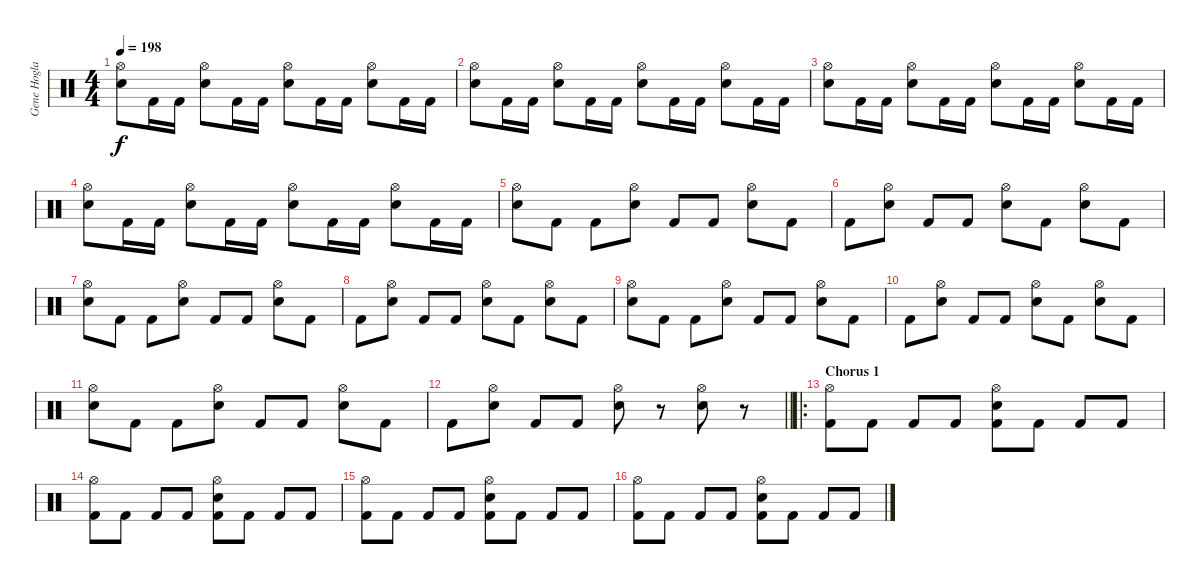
\track ("Gene Hoglan" "Gene Hogla") {instrument percussion}
\staff {score}
\articulation defaults
\ts (4 4)
\tempo 198
\clef neutral
\ks c
("Hi-Hat (open)" "Snare (hit) 2").8{dy f} "Kick (hit) 2".16 "Kick (hit) 2".16 ("Hi-Hat (open)" "Snare (hit) 2").8 "Kick (hit) 2".16 "Kick (hit) 2".16 ("Hi-Hat (open)" "Snare (hit) 2").8 "Kick (hit) 2".16 "Kick (hit) 2".16 ("Hi-Hat (open)" "Snare (hit) 2").8 "Kick (hit) 2".16 "Kick (hit) 2".16 |
("Hi-Hat (open)" "Snare (hit) 2").8 "Kick (hit) 2".16 "Kick (hit) 2".16 ("Hi-Hat (open)" "Snare (hit) 2").8 "Kick (hit) 2".16 "Kick (hit) 2".16 ("Hi-Hat (open)" "Snare (hit) 2").8 "Kick (hit) 2".16 "Kick (hit) 2".16 ("Hi-Hat (open)" "Snare (hit) 2").8 "Kick (hit) 2".16 "Kick (hit) 2".16 |
("Hi-Hat (open)" "Snare (hit) 2").8 "Kick (hit) 2".16 "Kick (hit) 2".16 ("Hi-Hat (open)" "Snare (hit) 2").8 "Kick (hit) 2".16 "Kick (hit) 2".16 ("Hi-Hat (open)" "Snare (hit) 2").8 "Kick (hit) 2".16 "Kick (hit) 2".16 ("Hi-Hat (open)" "Snare (hit) 2").8 "Kick (hit) 2".16 "Kick (hit) 2".16 |
("Hi-Hat (open)" "Snare (hit) 2").8 "Kick (hit) 2".16 "Kick (hit) 2".16 ("Hi-Hat (open)" "Snare (hit) 2").8 "Kick (hit) 2".16 "Kick (hit) 2".16 ("Hi-Hat (open)" "Snare (hit) 2").8 "Kick (hit) 2".16 "Kick (hit) 2".16 ("Hi-Hat (open)" "Snare (hit) 2").8 "Kick (hit) 2".16 "Kick (hit) 2".16 |
("Hi-Hat (open)" "Snare (hit) 2").8 "Kick (hit) 2".8 "Kick (hit) 2".8 ("Hi-Hat (open)" "Snare (hit) 2").8 "Kick (hit) 2".8 "Kick (hit) 2".8 ("Hi-Hat (open)" "Snare (hit) 2").8 "Kick (hit) 2".8 |
"Kick (hit) 2".8 ("Hi-Hat (open)" "Snare (hit) 2").8 "Kick (hit) 2".8 "Kick (hit) 2".8 ("Hi-Hat (open)" "Snare (hit) 2").8 "Kick (hit) 2".8 ("Hi-Hat (open)" "Snare (hit) 2").8 "Kick (hit) 2".8 |
("Hi-Hat (open)" "Snare (hit) 2").8 "Kick (hit) 2".8 "Kick (hit) 2".8 ("Hi-Hat (open)" "Snare (hit) 2").8 "Kick (hit) 2".8 "Kick (hit) 2".8 ("Hi-Hat (open)" "Snare (hit) 2").8 "Kick (hit) 2".8 |
"Kick (hit) 2".8 ("Hi-Hat (open)" "Snare (hit) 2").8 "Kick (hit) 2".8 "Kick (hit) 2".8 ("Hi-Hat (open)" "Snare (hit) 2").8 "Kick (hit) 2".8 ("Hi-Hat (open)" "Snare (hit) 2").8 "Kick (hit) 2".8 |
("Hi-Hat (open)" "Snare (hit) 2").8 "Kick (hit) 2".8 "Kick (hit) 2".8 ("Hi-Hat (open)" "Snare (hit) 2").8 "Kick (hit) 2".8 "Kick (hit) 2".8 ("Hi-Hat (open)" "Snare (hit) 2").8 "Kick (hit) 2".8 |
"Kick (hit) 2".8 ("Hi-Hat (open)" "Snare (hit) 2").8 "Kick (hit) 2".8 "Kick (hit) 2".8 ("Hi-Hat (open)" "Snare (hit) 2").8 "Kick (hit) 2".8 ("Hi-Hat (open)" "Snare (hit) 2").8 "Kick (hit) 2".8 |
("Hi-Hat (open)" "Snare (hit) 2").8 "Kick (hit) 2".8 "Kick (hit) 2".8 ("Hi-Hat (open)" "Snare (hit) 2").8 "Kick (hit) 2".8 "Kick (hit) 2".8 ("Hi-Hat (open)" "Snare (hit) 2").8 "Kick (hit) 2".8 |
\barLineRight lightlight "Kick (hit) 2".8
("Hi-Hat (open)" "Snare (hit) 2").8 "Kick (hit) 2".8 "Kick (hit) 2".8 ("Hi-Hat (open)" "Snare (hit) 2").8 r.8 ("Hi-Hat (open)" "Snare (hit) 2").8 r.8 |
\ro
\section ("" "Chorus 1")
("Hi-Hat (open)" "Kick (hit) 2").8 "Kick (hit) 2".8 "Kick (hit) 2".8 "Kick (hit) 2".8 ("Hi-Hat (open)" "Snare (hit) 2" "Kick (hit) 2").8 "Kick (hit) 2".8 "Kick (hit) 2".8 "Kick (hit) 2".8 |
("Hi-Hat (open)" "Kick (hit) 2").8 "Kick (hit) 2".8 "Kick (hit) 2".8 "Kick (hit) 2".8 ("Hi-Hat (open)" "Snare (hit) 2" "Kick (hit) 2").8 "Kick (hit) 2".8 "Kick (hit) 2".8 "Kick (hit) 2".8 |
("Hi-Hat (open)" "Kick (hit) 2").8 "Kick (hit) 2".8 "Kick (hit) 2".8 "Kick (hit) 2".8 ("Hi-Hat (open)" "Snare (hit) 2" "Kick (hit) 2").8 "Kick (hit) 2".8 "Kick (hit) 2".8 "Kick (hit) 2".8 |
("Hi-Hat (open)" "Kick (hit) 2").8 "Kick (hit) 2".8 "Kick (hit) 2".8 "Kick (hit) 2".8 ("Hi-Hat (open)" "Snare (hit) 2" "Kick (hit) 2").8 "Kick (hit) 2".8 "Kick (hit) 2".8 "Kick (hit) 2".8
